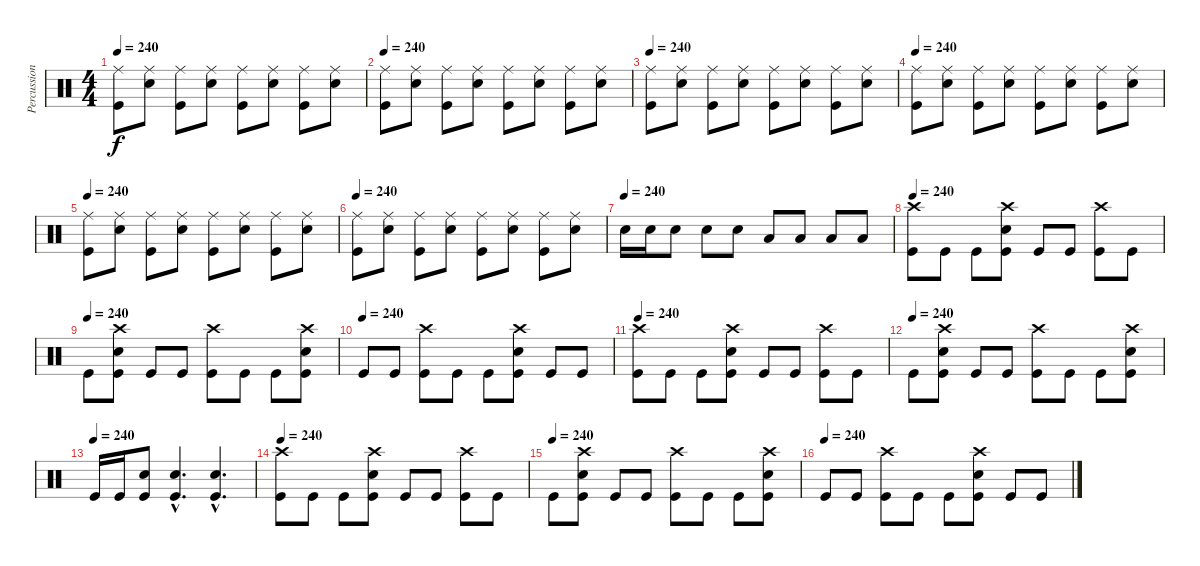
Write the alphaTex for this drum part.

\track ("Percussion" "Percussion") {instrument percussion}
\staff {score}
\articulation defaults
\ts (4 4)
\tempo 240
\clef neutral
\ks c
("Ride (middle)" "Kick (hit)").8{dy f} ("Electric Snare (hit)" "Ride (middle)").8 ("Ride (middle)" "Kick (hit)").8 ("Electric Snare (hit)" "Ride (middle)").8 ("Ride (middle)" "Kick (hit)").8 ("Electric Snare (hit)" "Ride (middle)").8 ("Ride (middle)" "Kick (hit)").8 ("Electric Snare (hit)" "Ride (middle)").8 |
\tempo 240
("Ride (middle)" "Kick (hit)").8 ("Electric Snare (hit)" "Ride (middle)").8 ("Ride (middle)" "Kick (hit)").8 ("Electric Snare (hit)" "Ride (middle)").8 ("Ride (middle)" "Kick (hit)").8 ("Electric Snare (hit)" "Ride (middle)").8 ("Ride (middle)" "Kick (hit)").8 ("Electric Snare (hit)" "Ride (middle)").8 |
\tempo 240
("Ride (middle)" "Kick (hit)").8 ("Electric Snare (hit)" "Ride (middle)").8 ("Ride (middle)" "Kick (hit)").8 ("Electric Snare (hit)" "Ride (middle)").8 ("Ride (middle)" "Kick (hit)").8 ("Electric Snare (hit)" "Ride (middle)").8 ("Ride (middle)" "Kick (hit)").8 ("Electric Snare (hit)" "Ride (middle)").8 |
\tempo 240
("Ride (middle)" "Kick (hit)").8 ("Electric Snare (hit)" "Ride (middle)").8 ("Ride (middle)" "Kick (hit)").8 ("Electric Snare (hit)" "Ride (middle)").8 ("Ride (middle)" "Kick (hit)").8 ("Electric Snare (hit)" "Ride (middle)").8 ("Ride (middle)" "Kick (hit)").8 ("Electric Snare (hit)" "Ride (middle)").8 |
\tempo 240
("Ride (middle)" "Kick (hit)").8 ("Electric Snare (hit)" "Ride (middle)").8 ("Ride (middle)" "Kick (hit)").8 ("Electric Snare (hit)" "Ride (middle)").8 ("Ride (middle)" "Kick (hit)").8 ("Electric Snare (hit)" "Ride (middle)").8 ("Ride (middle)" "Kick (hit)").8 ("Electric Snare (hit)" "Ride (middle)").8 |
\tempo 240
("Ride (middle)" "Kick (hit)").8 ("Electric Snare (hit)" "Ride (middle)").8 ("Ride (middle)" "Kick (hit)").8 ("Electric Snare (hit)" "Ride (middle)").8 ("Ride (middle)" "Kick (hit)").8 ("Electric Snare (hit)" "Ride (middle)").8 ("Ride (middle)" "Kick (hit)").8 ("Electric Snare (hit)" "Ride (middle)").8 |
\tempo (240)
"Electric Snare (hit)".16 "Electric Snare (hit)".16 "Electric Snare (hit)".8 "Electric Snare (hit)".8 "Electric Snare (hit)".8 "Low Tom (hit)".8 "Low Tom (hit)".8 "Low Tom (hit)".8 "Low Floor Tom (hit)".8 |
\tempo 240
("Crash high (hit)" "Kick (hit)").8 "Kick (hit)".8 "Kick (hit)".8 ("Electric Snare (hit)" "Crash high (hit)" "Kick (hit)").8 "Kick (hit)".8 "Kick (hit)".8 ("Crash high (hit)" "Kick (hit)").8 "Kick (hit)".8 |
\tempo (240)
"Kick (hit)".8 ("Electric Snare (hit)" "Crash high (hit)" "Kick (hit)").8 "Kick (hit)".8 "Kick (hit)".8 ("Crash high (hit)" "Kick (hit)").8 "Kick (hit)".8 "Kick (hit)".8 ("Electric Snare (hit)" "Crash high (hit)" "Kick (hit)").8 |
\tempo (240)
"Kick (hit)".8 "Kick (hit)".8 ("Crash high (hit)" "Kick (hit)").8 "Kick (hit)".8 "Kick (hit)".8 ("Electric Snare (hit)" "Crash high (hit)" "Kick (hit)").8 "Kick (hit)".8 "Kick (hit)".8 |
\tempo 240
("Crash high (hit)" "Kick (hit)").8 "Kick (hit)".8 "Kick (hit)".8 ("Electric Snare (hit)" "Crash high (hit)" "Kick (hit)").8 "Kick (hit)".8 "Kick (hit)".8 ("Crash high (hit)" "Kick (hit)").8 "Kick (hit)".8 |
\tempo (240)
"Kick (hit)".8 ("Electric Snare (hit)" "Crash high (hit)" "Kick (hit)").8 "Kick (hit)".8 "Kick (hit)".8 ("Crash high (hit)" "Kick (hit)").8 "Kick (hit)".8 "Kick (hit)".8 ("Electric Snare (hit)" "Crash high (hit)" "Kick (hit)").8 |
\tempo (240)
"Kick (hit)".16 "Kick (hit)".16 ("Electric Snare (hit)" "Kick (hit)").8 ("Electric Snare (hit)"{hac} "Kick (hit)"{hac}).4{d} ("Electric Snare (hit)"{hac} "Kick (hit)"{hac}).4{d} |
\tempo 240
("Crash high (hit)" "Kick (hit)").8 "Kick (hit)".8 "Kick (hit)".8 ("Electric Snare (hit)" "Crash high (hit)" "Kick (hit)").8 "Kick (hit)".8 "Kick (hit)".8 ("Crash high (hit)" "Kick (hit)").8 "Kick (hit)".8 |
\tempo (240)
"Kick (hit)".8 ("Electric Snare (hit)" "Crash high (hit)" "Kick (hit)").8 "Kick (hit)".8 "Kick (hit)".8 ("Crash high (hit)" "Kick (hit)").8 "Kick (hit)".8 "Kick (hit)".8 ("Electric Snare (hit)" "Crash high (hit)" "Kick (hit)").8 |
\tempo (240)
"Kick (hit)".8 "Kick (hit)".8 ("Crash high (hit)" "Kick (hit)").8 "Kick (hit)".8 "Kick (hit)".8 ("Electric Snare (hit)" "Crash high (hit)" "Kick (hit)").8 "Kick (hit)".8 "Kick (hit)".8
